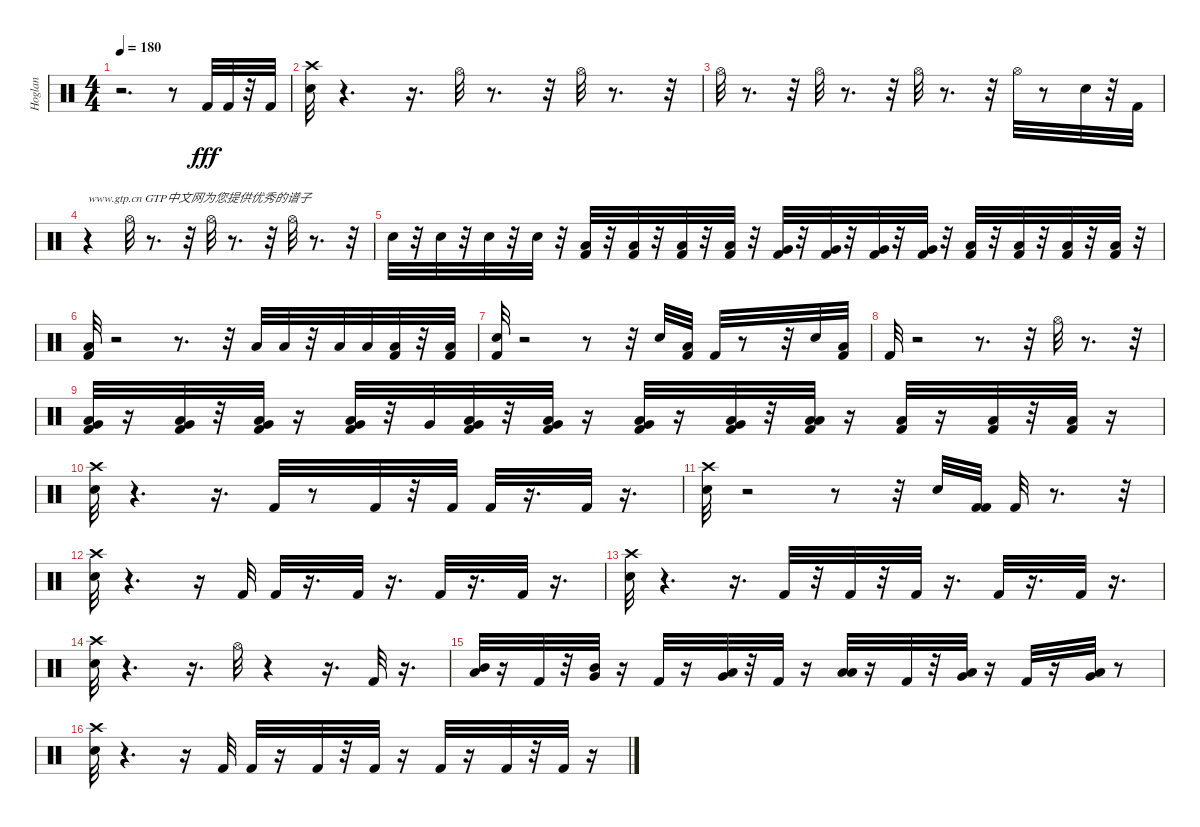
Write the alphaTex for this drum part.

\track ("Hoglan" "Hoglan") {instrument percussion}
\staff {score}
\articulation defaults
\ts (4 4)
\tempo 180
\clef neutral
\ks c
r.2{d dy fff} r.8 "Kick (hit) 2".32 "Kick (hit) 2".32 r.32 "Kick (hit) 2".32 |
("Crash high (hit)" "Electric Snare (hit)").32 r.4{d} r.16{d} "Hi-Hat (open)".32 r.8{d} r.32 "Hi-Hat (open)".32 r.8{d} r.32 |
"Hi-Hat (open)".32 r.8{d} r.32 "Hi-Hat (open)".32 r.8{d} r.32 "Hi-Hat (open)".32 r.8{d} r.32 "Hi-Hat (open)".32 r.8 "Snare (hit) 2".32 r.32 "Kick (hit) 2".32 |
r.4{txt "www.gtp.cn GTP中文网为您提供优秀的谱子"} "Hi-Hat (open)".32 r.8{d} r.32 "Hi-Hat (open)".32 r.8{d} r.32 "Hi-Hat (open)".32 r.8{d} r.32 |
"Electric Snare (hit)".32 r.32 "Electric Snare (hit)".32 r.32 "Electric Snare (hit)".32 r.32 "Electric Snare (hit)".32 r.32 ("Low Tom (hit)" "Kick (hit) 2").32 r.32 ("Low Tom (hit)" "Kick (hit) 2").32 r.32 ("Low Tom (hit)" "Kick (hit) 2").32 r.32 ("Low Tom (hit)" "Kick (hit) 2").32 r.32 ("Very Low Tom (hit)" "Kick (hit) 2").32 r.32 ("Very Low Tom (hit)" "Kick (hit) 2").32 r.32 ("Very Low Tom (hit)" "Kick (hit) 2").32 r.32 ("Very Low Tom (hit)" "Kick (hit) 2").32 r.32 ("Low Floor Tom (hit)" "Kick (hit) 2").32 r.32 ("Low Floor Tom (hit)" "Kick (hit) 2").32 r.32 ("Low Floor Tom (hit)" "Kick (hit) 2").32 r.32 ("Low Floor Tom (hit)" "Kick (hit) 2").32 r.32 |
("Low Floor Tom (hit)" "Kick (hit) 2").32 r.2 r.8{d} r.32 "Low Floor Tom (hit)".32 "Low Floor Tom (hit)".32 r.32 "Low Floor Tom (hit)".32 "Low Floor Tom (hit)".32 ("Low Floor Tom (hit)" "Kick (hit) 2").32 r.32 ("Low Floor Tom (hit)" "Kick (hit) 2").32 |
("Electric Snare (hit)" "Kick (hit) 2").32 r.2 r.8 r.32 "Electric Snare (hit)".32 ("Low Floor Tom (hit)" "Kick (hit) 2").32 "Kick (hit) 2".32 r.8 r.32 "Electric Snare (hit)".32 ("Low Floor Tom (hit)" "Kick (hit) 2").32 |
"Kick (hit) 2".32 r.2 r.8{d} r.32 "Hi-Hat (open)".32 r.8{d} r.32 |
("Low Tom (hit)" "Very Low Tom (hit)" "Kick (hit) 2").32 r.16 ("Low Tom (hit)" "Very Low Tom (hit)" "Kick (hit) 2").32 r.32 ("Low Tom (hit)" "Very Low Tom (hit)" "Kick (hit) 2").32 r.16 ("Low Tom (hit)" "Very Low Tom (hit)" "Kick (hit) 2").32 r.32 "Very Low Tom (hit)".32 ("Very Low Tom (hit)" "Low Floor Tom (hit)" "Kick (hit) 2").32 r.32 ("Very Low Tom (hit)" "Low Floor Tom (hit)" "Kick (hit) 2").32 r.16 ("Very Low Tom (hit)" "Low Floor Tom (hit)" "Kick (hit) 2").32 r.16 ("Very Low Tom (hit)" "Low Floor Tom (hit)" "Kick (hit) 2").32 r.32 ("Low Floor Tom (hit)" "Low Floor Tom (hit)" "Kick (hit) 2").32 r.16 ("Low Floor Tom (hit)" "Kick (hit) 2").32 r.16 ("Low Floor Tom (hit)" "Kick (hit) 2").32 r.32 ("Low Floor Tom (hit)" "Kick (hit) 2").32 r.16 |
("Crash high (hit)" "Electric Snare (hit)").32 r.4{d} r.16{d} "Kick (hit) 2".32 r.8 "Kick (hit) 2".32 r.32 "Kick (hit) 2".32 "Kick (hit) 2".32 r.16{d} "Kick (hit) 2".32 r.16{d} |
("Crash high (hit)" "Electric Snare (hit)").32 r.2 r.8 r.32 "Electric Snare (hit)".32 ("Kick (hit) 2" "Kick (hit) 2").32 "Kick (hit) 2".32 r.8{d} r.32 |
("Crash high (hit)" "Electric Snare (hit)").32 r.4{d} r.16 "Kick (hit) 2".32 "Kick (hit) 2".32 r.16{d} "Kick (hit) 2".32 r.16{d} "Kick (hit) 2".32 r.16{d} "Kick (hit) 2".32 r.16{d} |
("Crash high (hit)" "Electric Snare (hit)").32 r.4{d} r.16{d} "Kick (hit) 2".32 r.32 "Kick (hit) 2".32 r.32 "Kick (hit) 2".32 r.16{d} "Kick (hit) 2".32 r.16{d} "Kick (hit) 2".32 r.16{d} |
("Crash high (hit)" "Electric Snare (hit)").32 r.4{d} r.16{d} "Hi-Hat (open)".32 r.4 r.16{d} "Kick (hit) 2".32 r.16{d} |
("Mid Tom (hit)" "Low Tom (hit)").32 r.16 "Kick (hit) 2".32 r.32 ("Mid Tom (hit)" "Very Low Tom (hit)").32 r.16 "Kick (hit) 2".32 r.16 ("Low Tom (hit)" "Very Low Tom (hit)").32 r.32 "Kick (hit) 2".32 r.16 ("Low Tom (hit)" "Low Floor Tom (hit)").32 r.16 "Kick (hit) 2".32 r.32 ("Very Low Tom (hit)" "Low Floor Tom (hit)").32 r.16 "Kick (hit) 2".32 r.16 ("Very Low Tom (hit)" "Low Floor Tom (hit)").32 r.8 |
("Crash high (hit)" "Electric Snare (hit)").32 r.4{d} r.16 "Kick (hit) 2".32 "Kick (hit) 2".32 r.16 "Kick (hit) 2".32 r.32 "Kick (hit) 2".32 r.16 "Kick (hit) 2".32 r.16 "Kick (hit) 2".32 r.32 "Kick (hit) 2".32 r.16
